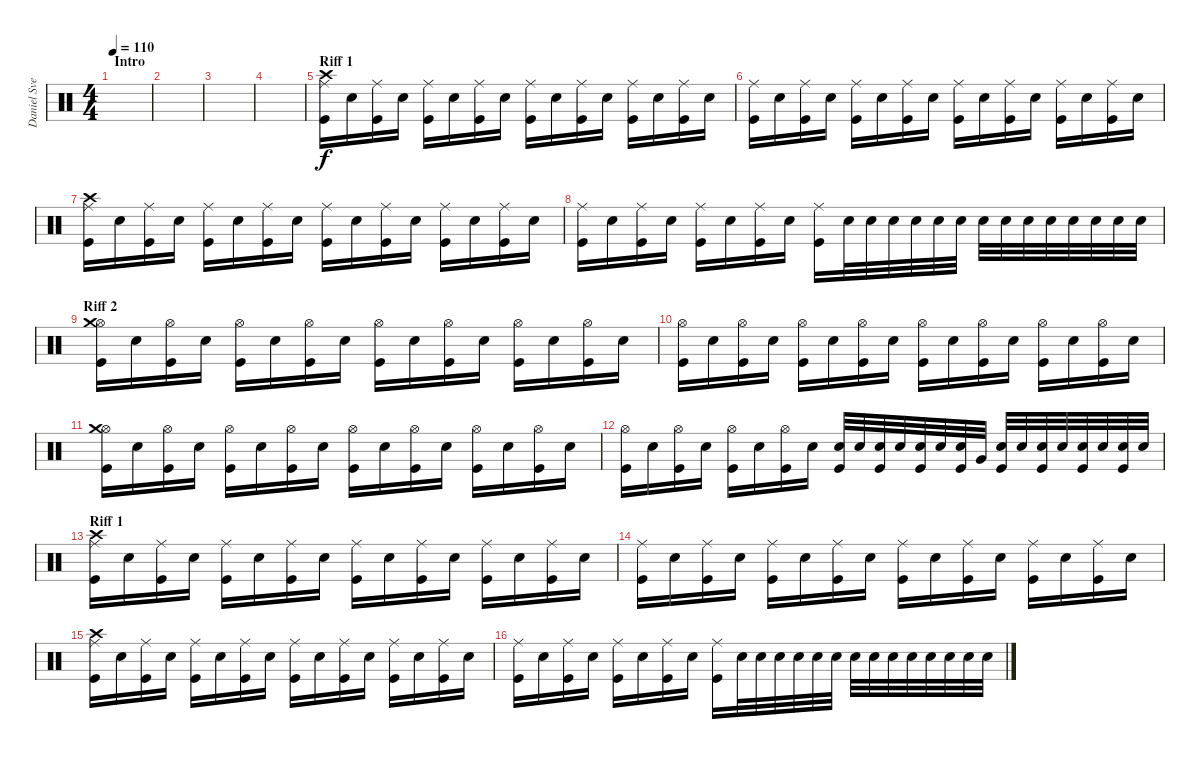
\track ("Daniel Svensson" "Daniel Sve") {instrument percussion}
\staff {score}
\articulation defaults
\ts (4 4)
\section ("" "Intro")
\tempo 110
\clef neutral
\ks c
|
|
|
|
\section ("" "Riff 1")
("Ride (middle)" "Crash high (hit)" "Kick (hit)").16 "Electric Snare (hit)".16 ("Ride (middle)" "Kick (hit)").16 "Electric Snare (hit)".16 ("Ride (middle)" "Kick (hit)").16 "Electric Snare (hit)".16 ("Ride (middle)" "Kick (hit)").16 "Electric Snare (hit)".16 ("Ride (middle)" "Kick (hit)").16 "Electric Snare (hit)".16 ("Ride (middle)" "Kick (hit)").16 "Electric Snare (hit)".16 ("Ride (middle)" "Kick (hit)").16 "Electric Snare (hit)".16 ("Ride (middle)" "Kick (hit)").16 "Electric Snare (hit)".16 |
("Ride (middle)" "Kick (hit)").16 "Electric Snare (hit)".16 ("Ride (middle)" "Kick (hit)").16 "Electric Snare (hit)".16 ("Ride (middle)" "Kick (hit)").16 "Electric Snare (hit)".16 ("Ride (middle)" "Kick (hit)").16 "Electric Snare (hit)".16 ("Ride (middle)" "Kick (hit)").16 "Electric Snare (hit)".16 ("Ride (middle)" "Kick (hit)").16 "Electric Snare (hit)".16 ("Ride (middle)" "Kick (hit)").16 "Electric Snare (hit)".16 ("Ride (middle)" "Kick (hit)").16 "Electric Snare (hit)".16 |
("Ride (middle)" "Crash high (hit)" "Kick (hit)").16 "Electric Snare (hit)".16 ("Ride (middle)" "Kick (hit)").16 "Electric Snare (hit)".16 ("Ride (middle)" "Kick (hit)").16 "Electric Snare (hit)".16 ("Ride (middle)" "Kick (hit)").16 "Electric Snare (hit)".16 ("Ride (middle)" "Kick (hit)").16 "Electric Snare (hit)".16 ("Ride (middle)" "Kick (hit)").16 "Electric Snare (hit)".16 ("Ride (middle)" "Kick (hit)").16 "Electric Snare (hit)".16 ("Ride (middle)" "Kick (hit)").16 "Electric Snare (hit)".16 |
("Ride (middle)" "Kick (hit)").16 "Electric Snare (hit)".16 ("Ride (middle)" "Kick (hit)").16 "Electric Snare (hit)".16 ("Ride (middle)" "Kick (hit)").16 "Electric Snare (hit)".16 ("Ride (middle)" "Kick (hit)").16 "Electric Snare (hit)".16 ("Ride (middle)" "Kick (hit)").16 "Electric Snare (hit)".32 "Electric Snare (hit)".32 "Electric Snare (hit)".32 "Electric Snare (hit)".32 "Electric Snare (hit)".32 "Electric Snare (hit)".32 "Electric Snare (hit)".32 "Electric Snare (hit)".32 "Electric Snare (hit)".32 "Electric Snare (hit)".32 "Electric Snare (hit)".32 "Electric Snare (hit)".32 "Electric Snare (hit)".32 "Electric Snare (hit)".32 |
\section ("" "Riff 2")
("Hi-Hat (open)" "Crash medium (hit)" "Kick (hit)").16 "Electric Snare (hit)".16 ("Hi-Hat (open)" "Kick (hit)").16 "Electric Snare (hit)".16 ("Hi-Hat (open)" "Kick (hit)").16 "Electric Snare (hit)".16 ("Hi-Hat (open)" "Kick (hit)").16 "Electric Snare (hit)".16 ("Hi-Hat (open)" "Kick (hit)").16 "Electric Snare (hit)".16 ("Hi-Hat (open)" "Kick (hit)").16 "Electric Snare (hit)".16 ("Hi-Hat (open)" "Kick (hit)").16 "Electric Snare (hit)".16 ("Hi-Hat (open)" "Kick (hit)").16 "Electric Snare (hit)".16 |
("Hi-Hat (open)" "Kick (hit)").16 "Electric Snare (hit)".16 ("Hi-Hat (open)" "Kick (hit)").16 "Electric Snare (hit)".16 ("Hi-Hat (open)" "Kick (hit)").16 "Electric Snare (hit)".16 ("Hi-Hat (open)" "Kick (hit)").16 "Electric Snare (hit)".16 ("Hi-Hat (open)" "Kick (hit)").16 "Electric Snare (hit)".16 ("Hi-Hat (open)" "Kick (hit)").16 "Electric Snare (hit)".16 ("Hi-Hat (open)" "Kick (hit)").16 "Electric Snare (hit)".16 ("Hi-Hat (open)" "Kick (hit)").16 "Electric Snare (hit)".16 |
("Hi-Hat (open)" "Crash medium (hit)" "Kick (hit)").16 "Electric Snare (hit)".16 ("Hi-Hat (open)" "Kick (hit)").16 "Electric Snare (hit)".16 ("Hi-Hat (open)" "Kick (hit)").16 "Electric Snare (hit)".16 ("Hi-Hat (open)" "Kick (hit)").16 "Electric Snare (hit)".16 ("Hi-Hat (open)" "Kick (hit)").16 "Electric Snare (hit)".16 ("Hi-Hat (open)" "Kick (hit)").16 "Electric Snare (hit)".16 ("Hi-Hat (open)" "Kick (hit)").16 "Electric Snare (hit)".16 ("Hi-Hat (open)" "Kick (hit)").16 "Electric Snare (hit)".16 |
("Hi-Hat (open)" "Kick (hit)").16 "Electric Snare (hit)".16 ("Hi-Hat (open)" "Kick (hit)").16 "Electric Snare (hit)".16 ("Hi-Hat (open)" "Kick (hit)").16 "Electric Snare (hit)".16 ("Hi-Hat (open)" "Kick (hit)").16 "Electric Snare (hit)".16 ("Electric Snare (hit)" "Kick (hit)").32 "Electric Snare (hit)".32 ("Electric Snare (hit)" "Kick (hit)").32 "Electric Snare (hit)".32 ("Electric Snare (hit)" "Kick (hit)").32 "Electric Snare (hit)".32 ("Electric Snare (hit)" "Kick (hit)").32 "Very Low Tom (hit)".32 ("Snare (hit) 2" "Kick (hit)").32 "Snare (hit) 2".32 ("Snare (hit) 2" "Kick (hit)").32 "Snare (hit) 2".32 ("Snare (hit) 2" "Kick (hit)").32 "Snare (hit) 2".32 ("Snare (hit) 2" "Kick (hit)").32 "Snare (hit) 2".32 |
\section ("" "Riff 1")
("Ride (middle)" "Crash high (hit)" "Kick (hit)").16 "Electric Snare (hit)".16 ("Ride (middle)" "Kick (hit)").16 "Electric Snare (hit)".16 ("Ride (middle)" "Kick (hit)").16 "Electric Snare (hit)".16 ("Ride (middle)" "Kick (hit)").16 "Electric Snare (hit)".16 ("Ride (middle)" "Kick (hit)").16 "Electric Snare (hit)".16 ("Ride (middle)" "Kick (hit)").16 "Electric Snare (hit)".16 ("Ride (middle)" "Kick (hit)").16 "Electric Snare (hit)".16 ("Ride (middle)" "Kick (hit)").16 "Electric Snare (hit)".16 |
("Ride (middle)" "Kick (hit)").16 "Electric Snare (hit)".16 ("Ride (middle)" "Kick (hit)").16 "Electric Snare (hit)".16 ("Ride (middle)" "Kick (hit)").16 "Electric Snare (hit)".16 ("Ride (middle)" "Kick (hit)").16 "Electric Snare (hit)".16 ("Ride (middle)" "Kick (hit)").16 "Electric Snare (hit)".16 ("Ride (middle)" "Kick (hit)").16 "Electric Snare (hit)".16 ("Ride (middle)" "Kick (hit)").16 "Electric Snare (hit)".16 ("Ride (middle)" "Kick (hit)").16 "Electric Snare (hit)".16 |
("Ride (middle)" "Crash high (hit)" "Kick (hit)").16 "Electric Snare (hit)".16 ("Ride (middle)" "Kick (hit)").16 "Electric Snare (hit)".16 ("Ride (middle)" "Kick (hit)").16 "Electric Snare (hit)".16 ("Ride (middle)" "Kick (hit)").16 "Electric Snare (hit)".16 ("Ride (middle)" "Kick (hit)").16 "Electric Snare (hit)".16 ("Ride (middle)" "Kick (hit)").16 "Electric Snare (hit)".16 ("Ride (middle)" "Kick (hit)").16 "Electric Snare (hit)".16 ("Ride (middle)" "Kick (hit)").16 "Electric Snare (hit)".16 |
("Ride (middle)" "Kick (hit)").16 "Electric Snare (hit)".16 ("Ride (middle)" "Kick (hit)").16 "Electric Snare (hit)".16 ("Ride (middle)" "Kick (hit)").16 "Electric Snare (hit)".16 ("Ride (middle)" "Kick (hit)").16 "Electric Snare (hit)".16 ("Ride (middle)" "Kick (hit)").16 "Electric Snare (hit)".32 "Electric Snare (hit)".32 "Electric Snare (hit)".32 "Electric Snare (hit)".32 "Electric Snare (hit)".32 "Electric Snare (hit)".32 "Electric Snare (hit)".32 "Electric Snare (hit)".32 "Electric Snare (hit)".32 "Electric Snare (hit)".32 "Electric Snare (hit)".32 "Electric Snare (hit)".32 "Electric Snare (hit)".32 "Electric Snare (hit)".32
